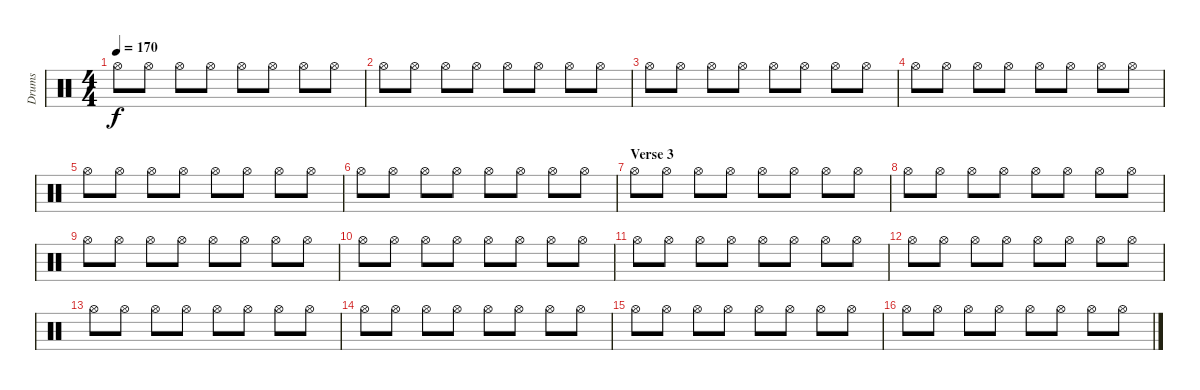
\track ("Drums" "Drums") {instrument percussion}
\staff {score}
\articulation defaults
\ts (4 4)
\tempo 170
\clef neutral
\ks c "Hi-Hat (open)".8{dy f} "Hi-Hat (open)".8 "Hi-Hat (open)".8 "Hi-Hat (open)".8 "Hi-Hat (open)".8 "Hi-Hat (open)".8 "Hi-Hat (open)".8 "Hi-Hat (open)".8
|
"Hi-Hat (open)".8 "Hi-Hat (open)".8 "Hi-Hat (open)".8 "Hi-Hat (open)".8 "Hi-Hat (open)".8 "Hi-Hat (open)".8 "Hi-Hat (open)".8 "Hi-Hat (open)".8 |
"Hi-Hat (open)".8 "Hi-Hat (open)".8 "Hi-Hat (open)".8 "Hi-Hat (open)".8 "Hi-Hat (open)".8 "Hi-Hat (open)".8 "Hi-Hat (open)".8 "Hi-Hat (open)".8 |
"Hi-Hat (open)".8 "Hi-Hat (open)".8 "Hi-Hat (open)".8 "Hi-Hat (open)".8 "Hi-Hat (open)".8 "Hi-Hat (open)".8 "Hi-Hat (open)".8 "Hi-Hat (open)".8 |
"Hi-Hat (open)".8 "Hi-Hat (open)".8 "Hi-Hat (open)".8 "Hi-Hat (open)".8 "Hi-Hat (open)".8 "Hi-Hat (open)".8 "Hi-Hat (open)".8 "Hi-Hat (open)".8 |
"Hi-Hat (open)".8 "Hi-Hat (open)".8 "Hi-Hat (open)".8 "Hi-Hat (open)".8 "Hi-Hat (open)".8 "Hi-Hat (open)".8 "Hi-Hat (open)".8 "Hi-Hat (open)".8 |
\section ("" "Verse 3")
"Hi-Hat (open)".8 "Hi-Hat (open)".8 "Hi-Hat (open)".8 "Hi-Hat (open)".8 "Hi-Hat (open)".8 "Hi-Hat (open)".8 "Hi-Hat (open)".8 "Hi-Hat (open)".8 |
"Hi-Hat (open)".8 "Hi-Hat (open)".8 "Hi-Hat (open)".8 "Hi-Hat (open)".8 "Hi-Hat (open)".8 "Hi-Hat (open)".8 "Hi-Hat (open)".8 "Hi-Hat (open)".8 |
"Hi-Hat (open)".8 "Hi-Hat (open)".8 "Hi-Hat (open)".8 "Hi-Hat (open)".8 "Hi-Hat (open)".8 "Hi-Hat (open)".8 "Hi-Hat (open)".8 "Hi-Hat (open)".8 |
"Hi-Hat (open)".8 "Hi-Hat (open)".8 "Hi-Hat (open)".8 "Hi-Hat (open)".8 "Hi-Hat (open)".8 "Hi-Hat (open)".8 "Hi-Hat (open)".8 "Hi-Hat (open)".8 |
"Hi-Hat (open)".8 "Hi-Hat (open)".8 "Hi-Hat (open)".8 "Hi-Hat (open)".8 "Hi-Hat (open)".8 "Hi-Hat (open)".8 "Hi-Hat (open)".8 "Hi-Hat (open)".8 |
"Hi-Hat (open)".8 "Hi-Hat (open)".8 "Hi-Hat (open)".8 "Hi-Hat (open)".8 "Hi-Hat (open)".8 "Hi-Hat (open)".8 "Hi-Hat (open)".8 "Hi-Hat (open)".8 |
"Hi-Hat (open)".8 "Hi-Hat (open)".8 "Hi-Hat (open)".8 "Hi-Hat (open)".8 "Hi-Hat (open)".8 "Hi-Hat (open)".8 "Hi-Hat (open)".8 "Hi-Hat (open)".8 |
"Hi-Hat (open)".8 "Hi-Hat (open)".8 "Hi-Hat (open)".8 "Hi-Hat (open)".8 "Hi-Hat (open)".8 "Hi-Hat (open)".8 "Hi-Hat (open)".8 "Hi-Hat (open)".8 |
"Hi-Hat (open)".8 "Hi-Hat (open)".8 "Hi-Hat (open)".8 "Hi-Hat (open)".8 "Hi-Hat (open)".8 "Hi-Hat (open)".8 "Hi-Hat (open)".8 "Hi-Hat (open)".8 |
"Hi-Hat (open)".8 "Hi-Hat (open)".8 "Hi-Hat (open)".8 "Hi-Hat (open)".8 "Hi-Hat (open)".8 "Hi-Hat (open)".8 "Hi-Hat (open)".8 "Hi-Hat (open)".8
